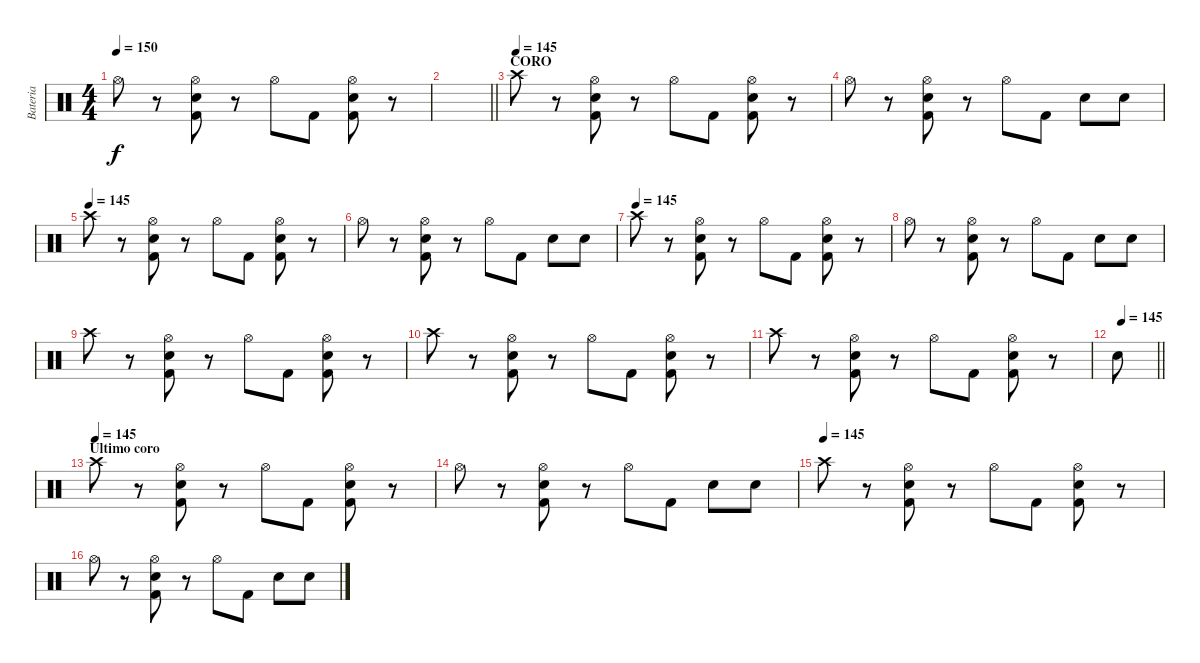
\track ("Bateria" "Bateria") {instrument percussion}
\staff {score}
\articulation defaults
\ts (4 4)
\tempo 150
\clef neutral
\ks c "Hi-Hat (open)".8{dy f}
r.8 ("Hi-Hat (open)" "Electric Snare (hit)" "Kick (hit) 2").8 r.8 "Hi-Hat (open)".8 "Kick (hit) 2".8 ("Hi-Hat (open)" "Electric Snare (hit)" "Kick (hit) 2").8 r.8 |
\barLineRight lightlight
|
\section ("" "CORO")
\tempo (145)
"Crash high (hit)".8{balance 8} r.8 ("Hi-Hat (open)" "Electric Snare (hit)" "Kick (hit) 2").8 r.8 "Hi-Hat (open)".8 "Kick (hit) 2".8 ("Hi-Hat (open)" "Electric Snare (hit)" "Kick (hit) 2").8 r.8 |
"Hi-Hat (open)".8 r.8 ("Hi-Hat (open)" "Electric Snare (hit)" "Kick (hit) 2").8 r.8 "Hi-Hat (open)".8 "Kick (hit) 2".8 "Electric Snare (hit)".8 "Electric Snare (hit)".8 |
\tempo (145)
"Crash high (hit)".8 r.8 ("Hi-Hat (open)" "Electric Snare (hit)" "Kick (hit) 2").8 r.8 "Hi-Hat (open)".8 "Kick (hit) 2".8 ("Hi-Hat (open)" "Electric Snare (hit)" "Kick (hit) 2").8 r.8 |
"Hi-Hat (open)".8 r.8 ("Hi-Hat (open)" "Electric Snare (hit)" "Kick (hit) 2").8 r.8 "Hi-Hat (open)".8 "Kick (hit) 2".8 "Electric Snare (hit)".8 "Electric Snare (hit)".8 |
\tempo (145)
"Crash high (hit)".8 r.8 ("Hi-Hat (open)" "Electric Snare (hit)" "Kick (hit) 2").8 r.8 "Hi-Hat (open)".8 "Kick (hit) 2".8 ("Hi-Hat (open)" "Electric Snare (hit)" "Kick (hit) 2").8 r.8 |
"Hi-Hat (open)".8 r.8 ("Hi-Hat (open)" "Electric Snare (hit)" "Kick (hit) 2").8 r.8 "Hi-Hat (open)".8 "Kick (hit) 2".8 "Electric Snare (hit)".8 "Electric Snare (hit)".8 |
"Crash high (hit)".8 r.8 ("Hi-Hat (open)" "Electric Snare (hit)" "Kick (hit) 2").8 r.8 "Hi-Hat (open)".8 "Kick (hit) 2".8 ("Hi-Hat (open)" "Electric Snare (hit)" "Kick (hit) 2").8 r.8 |
"Crash high (hit)".8 r.8 ("Hi-Hat (open)" "Electric Snare (hit)" "Kick (hit) 2").8 r.8 "Hi-Hat (open)".8 "Kick (hit) 2".8 ("Hi-Hat (open)" "Electric Snare (hit)" "Kick (hit) 2").8 r.8 |
"Crash high (hit)".8 r.8 ("Hi-Hat (open)" "Electric Snare (hit)" "Kick (hit) 2").8 r.8 "Hi-Hat (open)".8 "Kick (hit) 2".8 ("Hi-Hat (open)" "Electric Snare (hit)" "Kick (hit) 2").8 r.8 |
\tempo (145 0.125)
\barLineRight lightlight "Electric Snare (hit)".8
|
\section ("" "Ultimo coro")
\tempo (145)
"Crash high (hit)".8 r.8 ("Hi-Hat (open)" "Electric Snare (hit)" "Kick (hit) 2").8 r.8 "Hi-Hat (open)".8 "Kick (hit) 2".8 ("Hi-Hat (open)" "Electric Snare (hit)" "Kick (hit) 2").8 r.8 |
"Hi-Hat (open)".8 r.8 ("Hi-Hat (open)" "Electric Snare (hit)" "Kick (hit) 2").8 r.8 "Hi-Hat (open)".8 "Kick (hit) 2".8 "Electric Snare (hit)".8 "Electric Snare (hit)".8 |
\tempo (145)
"Crash high (hit)".8 r.8 ("Hi-Hat (open)" "Electric Snare (hit)" "Kick (hit) 2").8 r.8 "Hi-Hat (open)".8 "Kick (hit) 2".8 ("Hi-Hat (open)" "Electric Snare (hit)" "Kick (hit) 2").8 r.8 |
"Hi-Hat (open)".8 r.8 ("Hi-Hat (open)" "Electric Snare (hit)" "Kick (hit) 2").8 r.8 "Hi-Hat (open)".8 "Kick (hit) 2".8 "Electric Snare (hit)".8 "Electric Snare (hit)".8
